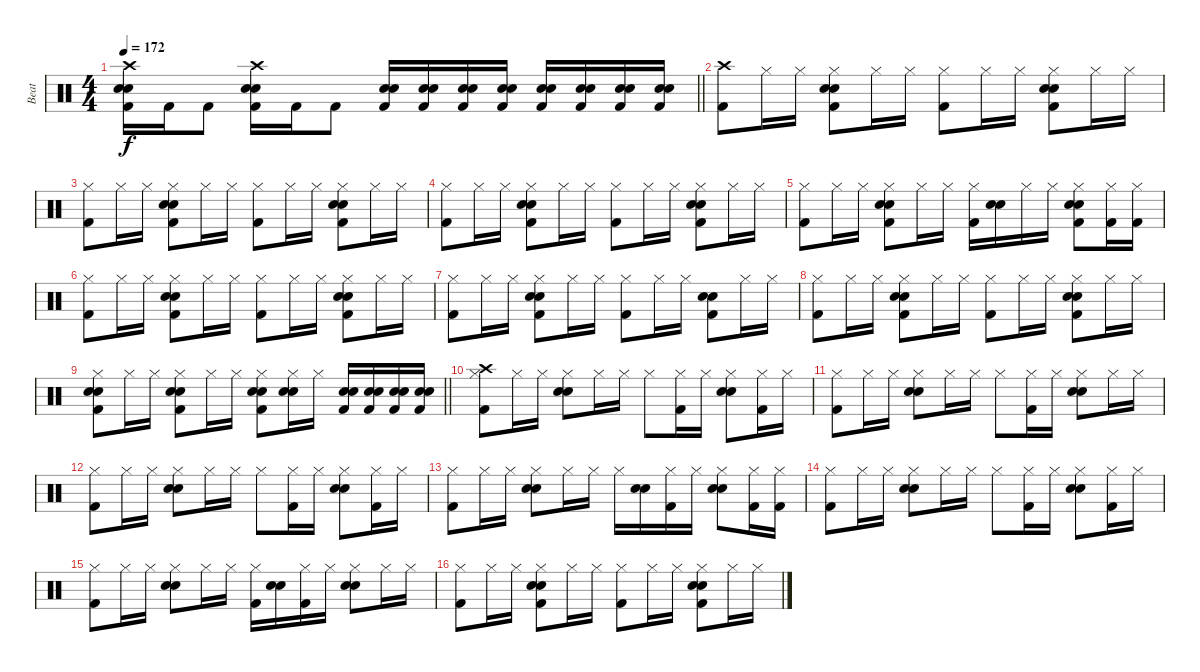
\track ("Beat" "Beat") {instrument percussion}
\staff {score}
\articulation defaults
\ts (4 4)
\tempo 172
\clef neutral
\barLineRight lightlight
\ks c
("Kick (hit) 2" "Snare (hit) 2" "Hand Clap (hit)" "Crash high (hit)").16{dy f} "Kick (hit) 2".16 "Kick (hit) 2".8 ("Kick (hit) 2" "Snare (hit) 2" "Hand Clap (hit)" "Crash high (hit)").16 "Kick (hit) 2".16 "Kick (hit) 2".8 ("Kick (hit) 2" "Snare (hit) 2" "Hand Clap (hit)").16 ("Kick (hit) 2" "Snare (hit) 2" "Hand Clap (hit)").16 ("Kick (hit) 2" "Snare (hit) 2" "Hand Clap (hit)").16 ("Kick (hit) 2" "Snare (hit) 2" "Hand Clap (hit)").16 ("Kick (hit) 2" "Snare (hit) 2" "Hand Clap (hit)").16 ("Kick (hit) 2" "Snare (hit) 2" "Hand Clap (hit)").16 ("Kick (hit) 2" "Snare (hit) 2" "Hand Clap (hit)").16 ("Kick (hit) 2" "Snare (hit) 2" "Hand Clap (hit)").16 |
\section ("" " ")
("Kick (hit) 2" "Crash high (hit)").8 "Hi-Hat (closed)".16 "Hi-Hat (closed)".16 ("Kick (hit) 2" "Hi-Hat (closed)" "Snare (hit) 2" "Hand Clap (hit)").8 "Hi-Hat (closed)".16 "Hi-Hat (closed)".16 ("Kick (hit) 2" "Hi-Hat (closed)").8 "Hi-Hat (closed)".16 "Hi-Hat (closed)".16 ("Kick (hit) 2" "Hi-Hat (closed)" "Snare (hit) 2" "Hand Clap (hit)").8 "Hi-Hat (closed)".16 "Hi-Hat (closed)".16 |
("Kick (hit) 2" "Hi-Hat (closed)").8 "Hi-Hat (closed)".16 "Hi-Hat (closed)".16 ("Kick (hit) 2" "Hi-Hat (closed)" "Snare (hit) 2" "Hand Clap (hit)").8 "Hi-Hat (closed)".16 "Hi-Hat (closed)".16 ("Kick (hit) 2" "Hi-Hat (closed)").8 "Hi-Hat (closed)".16 "Hi-Hat (closed)".16 ("Kick (hit) 2" "Hi-Hat (closed)" "Snare (hit) 2" "Hand Clap (hit)").8 "Hi-Hat (closed)".16 "Hi-Hat (closed)".16 |
("Kick (hit) 2" "Hi-Hat (closed)").8 "Hi-Hat (closed)".16 "Hi-Hat (closed)".16 ("Kick (hit) 2" "Hi-Hat (closed)" "Snare (hit) 2" "Hand Clap (hit)").8 "Hi-Hat (closed)".16 "Hi-Hat (closed)".16 ("Kick (hit) 2" "Hi-Hat (closed)").8 "Hi-Hat (closed)".16 "Hi-Hat (closed)".16 ("Kick (hit) 2" "Hi-Hat (closed)" "Snare (hit) 2" "Hand Clap (hit)").8 "Hi-Hat (closed)".16 "Hi-Hat (closed)".16 |
("Kick (hit) 2" "Hi-Hat (closed)").8 "Hi-Hat (closed)".16 "Hi-Hat (closed)".16 ("Kick (hit) 2" "Hi-Hat (closed)" "Snare (hit) 2" "Hand Clap (hit)").8 "Hi-Hat (closed)".16 "Hi-Hat (closed)".16 ("Kick (hit) 2" "Hi-Hat (closed)").16 ("Snare (hit) 2" "Hand Clap (hit)").16 "Hi-Hat (closed)".16 "Hi-Hat (closed)".16 ("Kick (hit) 2" "Hi-Hat (closed)" "Snare (hit) 2" "Hand Clap (hit)").8 ("Kick (hit) 2" "Hi-Hat (closed)").16 ("Kick (hit) 2" "Hi-Hat (closed)").16 |
("Kick (hit) 2" "Hi-Hat (closed)").8 "Hi-Hat (closed)".16 "Hi-Hat (closed)".16 ("Kick (hit) 2" "Hi-Hat (closed)" "Snare (hit) 2" "Hand Clap (hit)").8 "Hi-Hat (closed)".16 "Hi-Hat (closed)".16 ("Kick (hit) 2" "Hi-Hat (closed)").8 "Hi-Hat (closed)".16 "Hi-Hat (closed)".16 ("Kick (hit) 2" "Hi-Hat (closed)" "Snare (hit) 2" "Hand Clap (hit)").8 "Hi-Hat (closed)".16 "Hi-Hat (closed)".16 |
("Kick (hit) 2" "Hi-Hat (closed)").8 "Hi-Hat (closed)".16 "Hi-Hat (closed)".16 ("Kick (hit) 2" "Hi-Hat (closed)" "Snare (hit) 2" "Hand Clap (hit)").8 "Hi-Hat (closed)".16 "Hi-Hat (closed)".16 ("Kick (hit) 2" "Hi-Hat (closed)").8 "Hi-Hat (closed)".16 "Hi-Hat (closed)".16 ("Kick (hit) 2" "Snare (hit) 2" "Hand Clap (hit)").8 "Hi-Hat (closed)".16 "Hi-Hat (closed)".16 |
("Kick (hit) 2" "Hi-Hat (closed)").8 "Hi-Hat (closed)".16 "Hi-Hat (closed)".16 ("Kick (hit) 2" "Hi-Hat (closed)" "Snare (hit) 2" "Hand Clap (hit)").8 "Hi-Hat (closed)".16 "Hi-Hat (closed)".16 ("Kick (hit) 2" "Hi-Hat (closed)").8 "Hi-Hat (closed)".16 "Hi-Hat (closed)".16 ("Kick (hit) 2" "Hi-Hat (closed)" "Snare (hit) 2" "Hand Clap (hit)").8 "Hi-Hat (closed)".16 "Hi-Hat (closed)".16 |
\barLineRight lightlight
("Kick (hit) 2" "Hi-Hat (closed)" "Snare (hit) 2" "Hand Clap (hit)").8 "Hi-Hat (closed)".16 "Hi-Hat (closed)".16 ("Kick (hit) 2" "Hi-Hat (closed)" "Snare (hit) 2" "Hand Clap (hit)").8 "Hi-Hat (closed)".16 "Hi-Hat (closed)".16 ("Kick (hit) 2" "Hi-Hat (closed)" "Snare (hit) 2" "Hand Clap (hit)").8 ("Hi-Hat (closed)" "Snare (hit) 2" "Hand Clap (hit)").16 "Hi-Hat (closed)".16 ("Kick (hit) 2" "Snare (hit) 2" "Hand Clap (hit)").16 ("Kick (hit) 2" "Snare (hit) 2" "Hand Clap (hit)").16 ("Kick (hit) 2" "Snare (hit) 2" "Hand Clap (hit)").16 ("Kick (hit) 2" "Snare (hit) 2" "Hand Clap (hit)").16 |
("Kick (hit) 2" "Hi-Hat (closed)" "Crash high (hit)").8 "Hi-Hat (closed)".16 "Hi-Hat (closed)".16 ("Hi-Hat (closed)" "Snare (hit) 2" "Hand Clap (hit)").8 "Hi-Hat (closed)".16 "Hi-Hat (closed)".16 "Hi-Hat (closed)".8 ("Kick (hit) 2" "Hi-Hat (closed)").16 "Hi-Hat (closed)".16 ("Hi-Hat (closed)" "Snare (hit) 2" "Hand Clap (hit)").8 ("Kick (hit) 2" "Hi-Hat (closed)").16 "Hi-Hat (closed)".16 |
("Kick (hit) 2" "Hi-Hat (closed)").8 "Hi-Hat (closed)".16 "Hi-Hat (closed)".16 ("Hi-Hat (closed)" "Snare (hit) 2" "Hand Clap (hit)").8 "Hi-Hat (closed)".16 "Hi-Hat (closed)".16 "Hi-Hat (closed)".8 ("Kick (hit) 2" "Hi-Hat (closed)").16 "Hi-Hat (closed)".16 ("Hi-Hat (closed)" "Snare (hit) 2" "Hand Clap (hit)").8 "Hi-Hat (closed)".16 "Hi-Hat (closed)".16 |
("Kick (hit) 2" "Hi-Hat (closed)").8 "Hi-Hat (closed)".16 "Hi-Hat (closed)".16 ("Hi-Hat (closed)" "Snare (hit) 2" "Hand Clap (hit)").8 "Hi-Hat (closed)".16 "Hi-Hat (closed)".16 "Hi-Hat (closed)".8 ("Kick (hit) 2" "Hi-Hat (closed)").16 "Hi-Hat (closed)".16 ("Hi-Hat (closed)" "Snare (hit) 2" "Hand Clap (hit)").8 ("Kick (hit) 2" "Hi-Hat (closed)").16 "Hi-Hat (closed)".16 |
("Kick (hit) 2" "Hi-Hat (closed)").8 "Hi-Hat (closed)".16 "Hi-Hat (closed)".16 ("Hi-Hat (closed)" "Snare (hit) 2" "Hand Clap (hit)").8 "Hi-Hat (closed)".16 "Hi-Hat (closed)".16 "Hi-Hat (closed)".16 ("Snare (hit) 2" "Hand Clap (hit)").16 ("Kick (hit) 2" "Hi-Hat (closed)").16 "Hi-Hat (closed)".16 ("Hi-Hat (closed)" "Snare (hit) 2" "Hand Clap (hit)").8 ("Kick (hit) 2" "Hi-Hat (closed)").16 ("Kick (hit) 2" "Hi-Hat (closed)").16 |
("Kick (hit) 2" "Hi-Hat (closed)").8 "Hi-Hat (closed)".16 "Hi-Hat (closed)".16 ("Hi-Hat (closed)" "Snare (hit) 2" "Hand Clap (hit)").8 "Hi-Hat (closed)".16 "Hi-Hat (closed)".16 "Hi-Hat (closed)".8 ("Kick (hit) 2" "Hi-Hat (closed)").16 "Hi-Hat (closed)".16 ("Hi-Hat (closed)" "Snare (hit) 2" "Hand Clap (hit)").8 ("Kick (hit) 2" "Hi-Hat (closed)").16 "Hi-Hat (closed)".16 |
("Kick (hit) 2" "Hi-Hat (closed)").8 "Hi-Hat (closed)".16 "Hi-Hat (closed)".16 ("Hi-Hat (closed)" "Snare (hit) 2" "Hand Clap (hit)").8 "Hi-Hat (closed)".16 "Hi-Hat (closed)".16 ("Kick (hit) 2" "Hi-Hat (closed)").16 ("Snare (hit) 2" "Hand Clap (hit)").16 ("Kick (hit) 2" "Hi-Hat (closed)").16 "Hi-Hat (closed)".16 ("Hi-Hat (closed)" "Snare (hit) 2" "Hand Clap (hit)").8 "Hi-Hat (closed)".16 "Hi-Hat (closed)".16 |
("Kick (hit) 2" "Hi-Hat (closed)").8 "Hi-Hat (closed)".16 "Hi-Hat (closed)".16 ("Kick (hit) 2" "Hi-Hat (closed)" "Snare (hit) 2" "Hand Clap (hit)").8 "Hi-Hat (closed)".16 "Hi-Hat (closed)".16 ("Kick (hit) 2" "Hi-Hat (closed)").8 "Hi-Hat (closed)".16 "Hi-Hat (closed)".16 ("Kick (hit) 2" "Hi-Hat (closed)" "Snare (hit) 2" "Hand Clap (hit)").8 "Hi-Hat (closed)".16 "Hi-Hat (closed)".16
